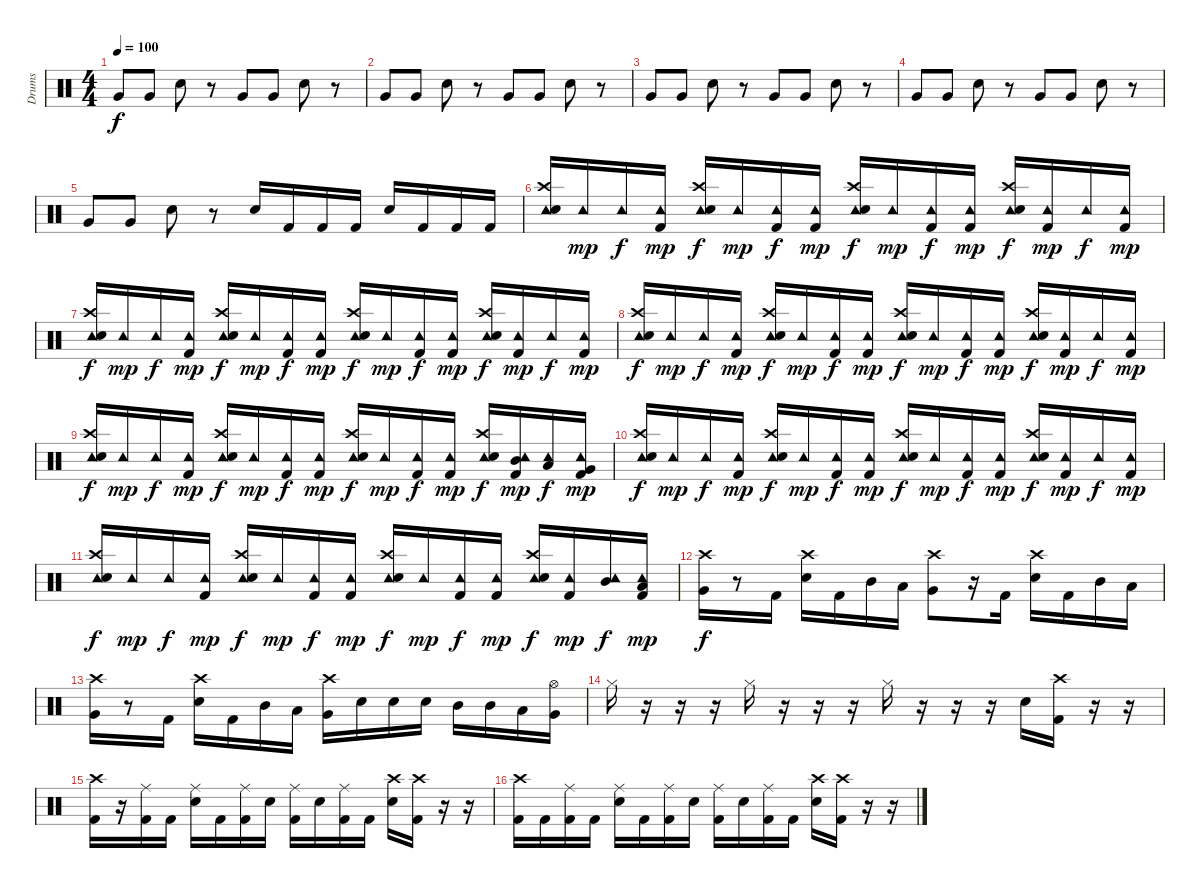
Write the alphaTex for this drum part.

\track ("Drums" "Drums") {instrument percussion}
\staff {score}
\articulation defaults
\ts (4 4)
\tempo 100
\clef neutral
\ks c "Very Low Tom (hit)".8{dy f} "Very Low Tom (hit)".8 "Electric Snare (hit)".8
r.8 "Very Low Tom (hit)".8 "Very Low Tom (hit)".8 "Electric Snare (hit)".8 r.8 |
"Very Low Tom (hit)".8 "Very Low Tom (hit)".8 "Electric Snare (hit)".8 r.8 "Very Low Tom (hit)".8 "Very Low Tom (hit)".8 "Electric Snare (hit)".8 r.8 |
"Very Low Tom (hit)".8 "Very Low Tom (hit)".8 "Electric Snare (hit)".8 r.8 "Very Low Tom (hit)".8 "Very Low Tom (hit)".8 "Electric Snare (hit)".8 r.8 |
"Very Low Tom (hit)".8 "Very Low Tom (hit)".8 "Electric Snare (hit)".8 r.8 "Very Low Tom (hit)".8 "Very Low Tom (hit)".8 "Electric Snare (hit)".8 r.8 |
"Very Low Tom (hit)".8 "Very Low Tom (hit)".8 "Electric Snare (hit)".8 r.8 "Electric Snare (hit)".16 "Kick (hit) 2".16 "Kick (hit) 2".16 "Kick (hit) 2".16 "Electric Snare (hit)".16 "Kick (hit) 2".16 "Kick (hit) 2".16 "Kick (hit) 2".16 |
("Crash high (hit)" "Tambourine (hit)" "Electric Snare (hit)").16 "Tambourine (hit)".16{dy mp} "Tambourine (hit)".16{dy f} ("Tambourine (hit)" "Kick (hit) 2").16{dy mp} ("Crash high (hit)" "Tambourine (hit)" "Electric Snare (hit)").16{dy f} "Tambourine (hit)".16{dy mp} ("Tambourine (hit)" "Kick (hit) 2").16{dy f} ("Tambourine (hit)" "Kick (hit) 2").16{dy mp} ("Crash high (hit)" "Tambourine (hit)" "Electric Snare (hit)").16{dy f} "Tambourine (hit)".16{dy mp} ("Tambourine (hit)" "Kick (hit) 2").16{dy f} ("Tambourine (hit)" "Kick (hit) 2").16{dy mp} ("Crash high (hit)" "Tambourine (hit)" "Electric Snare (hit)").16{dy f} ("Tambourine (hit)" "Kick (hit) 2").16{dy mp} "Tambourine (hit)".16{dy f} ("Tambourine (hit)" "Kick (hit) 2").16{dy mp} |
("Crash high (hit)" "Tambourine (hit)" "Electric Snare (hit)").16{dy f} "Tambourine (hit)".16{dy mp} "Tambourine (hit)".16{dy f} ("Tambourine (hit)" "Kick (hit) 2").16{dy mp} ("Crash high (hit)" "Tambourine (hit)" "Electric Snare (hit)").16{dy f} "Tambourine (hit)".16{dy mp} ("Tambourine (hit)" "Kick (hit) 2").16{dy f} ("Tambourine (hit)" "Kick (hit) 2").16{dy mp} ("Crash high (hit)" "Tambourine (hit)" "Electric Snare (hit)").16{dy f} "Tambourine (hit)".16{dy mp} ("Tambourine (hit)" "Kick (hit) 2").16{dy f} ("Tambourine (hit)" "Kick (hit) 2").16{dy mp} ("Crash high (hit)" "Tambourine (hit)" "Electric Snare (hit)").16{dy f} ("Tambourine (hit)" "Kick (hit) 2").16{dy mp} "Tambourine (hit)".16{dy f} ("Tambourine (hit)" "Kick (hit) 2").16{dy mp} |
("Crash high (hit)" "Tambourine (hit)" "Electric Snare (hit)").16{dy f} "Tambourine (hit)".16{dy mp} "Tambourine (hit)".16{dy f} ("Tambourine (hit)" "Kick (hit) 2").16{dy mp} ("Crash high (hit)" "Tambourine (hit)" "Electric Snare (hit)").16{dy f} "Tambourine (hit)".16{dy mp} ("Tambourine (hit)" "Kick (hit) 2").16{dy f} ("Tambourine (hit)" "Kick (hit) 2").16{dy mp} ("Crash high (hit)" "Tambourine (hit)" "Electric Snare (hit)").16{dy f} "Tambourine (hit)".16{dy mp} ("Tambourine (hit)" "Kick (hit) 2").16{dy f} ("Tambourine (hit)" "Kick (hit) 2").16{dy mp} ("Crash high (hit)" "Tambourine (hit)" "Electric Snare (hit)").16{dy f} ("Tambourine (hit)" "Kick (hit) 2").16{dy mp} "Tambourine (hit)".16{dy f} ("Tambourine (hit)" "Kick (hit) 2").16{dy mp} |
("Crash high (hit)" "Tambourine (hit)" "Electric Snare (hit)").16{dy f} "Tambourine (hit)".16{dy mp} "Tambourine (hit)".16{dy f} ("Tambourine (hit)" "Kick (hit) 2").16{dy mp} ("Crash high (hit)" "Tambourine (hit)" "Electric Snare (hit)").16{dy f} "Tambourine (hit)".16{dy mp} ("Tambourine (hit)" "Kick (hit) 2").16{dy f} ("Tambourine (hit)" "Kick (hit) 2").16{dy mp} ("Crash high (hit)" "Tambourine (hit)" "Electric Snare (hit)").16{dy f} "Tambourine (hit)".16{dy mp} ("Tambourine (hit)" "Kick (hit) 2").16{dy f} ("Tambourine (hit)" "Kick (hit) 2").16{dy mp} ("Crash high (hit)" "Tambourine (hit)" "Electric Snare (hit)").16{dy f} ("Tambourine (hit)" "Mid Tom (hit)" "Kick (hit) 2").16{dy mp} ("Tambourine (hit)" "Low Tom (hit)").16{dy f} ("Tambourine (hit)" "Very Low Tom (hit)" "Kick (hit) 2").16{dy mp} |
("Crash high (hit)" "Tambourine (hit)" "Electric Snare (hit)").16{dy f} "Tambourine (hit)".16{dy mp} "Tambourine (hit)".16{dy f} ("Tambourine (hit)" "Kick (hit) 2").16{dy mp} ("Crash high (hit)" "Tambourine (hit)" "Electric Snare (hit)").16{dy f} "Tambourine (hit)".16{dy mp} ("Tambourine (hit)" "Kick (hit) 2").16{dy f} ("Tambourine (hit)" "Kick (hit) 2").16{dy mp} ("Crash high (hit)" "Tambourine (hit)" "Electric Snare (hit)").16{dy f} "Tambourine (hit)".16{dy mp} ("Tambourine (hit)" "Kick (hit) 2").16{dy f} ("Tambourine (hit)" "Kick (hit) 2").16{dy mp} ("Crash high (hit)" "Tambourine (hit)" "Electric Snare (hit)").16{dy f} ("Tambourine (hit)" "Kick (hit) 2").16{dy mp} "Tambourine (hit)".16{dy f} ("Tambourine (hit)" "Kick (hit) 2").16{dy mp} |
("Crash high (hit)" "Tambourine (hit)" "Electric Snare (hit)").16{dy f} "Tambourine (hit)".16{dy mp} "Tambourine (hit)".16{dy f} ("Tambourine (hit)" "Kick (hit) 2").16{dy mp} ("Crash high (hit)" "Tambourine (hit)" "Electric Snare (hit)").16{dy f} "Tambourine (hit)".16{dy mp} ("Tambourine (hit)" "Kick (hit) 2").16{dy f} ("Tambourine (hit)" "Kick (hit) 2").16{dy mp} ("Crash high (hit)" "Tambourine (hit)" "Electric Snare (hit)").16{dy f} "Tambourine (hit)".16{dy mp} ("Tambourine (hit)" "Kick (hit) 2").16{dy f} ("Tambourine (hit)" "Kick (hit) 2").16{dy mp} ("Crash high (hit)" "Tambourine (hit)" "Electric Snare (hit)").16{dy f} ("Tambourine (hit)" "Kick (hit) 2").16{dy mp} ("Tambourine (hit)" "Mid Tom (hit)").16{dy f} ("Tambourine (hit)" "Low Tom (hit)" "Kick (hit) 2").16{dy mp} |
("Crash high (hit)" "Very Low Tom (hit)").16{dy f} r.8 "Kick (hit) 2".16 ("Crash high (hit)" "Electric Snare (hit)").16 "Kick (hit) 2".16 "Mid Tom (hit)".16 "Low Tom (hit)".16 ("Crash high (hit)" "Very Low Tom (hit)").8 r.16 "Kick (hit) 2".16 ("Crash high (hit)" "Electric Snare (hit)").16 "Kick (hit) 2".16 "Mid Tom (hit)".16 "Low Tom (hit)".16 |
("Crash high (hit)" "Very Low Tom (hit)").16 r.8 "Kick (hit) 2".16 ("Crash high (hit)" "Electric Snare (hit)").16 "Kick (hit) 2".16 "Mid Tom (hit)".16 "Low Tom (hit)".16 ("Crash high (hit)" "Very Low Tom (hit)").16 "Electric Snare (hit)".16 "Electric Snare (hit)".16 "Electric Snare (hit)".16 "Mid Tom (hit)".16 "Mid Tom (hit)".16 "Low Tom (hit)".16 ("Hi-Hat (open)" "Very Low Tom (hit)").16 |
"Hi-Hat (closed)".16 r.16 r.16 r.16 "Hi-Hat (closed)".16 r.16 r.16 r.16 "Hi-Hat (closed)".16 r.16 r.16 r.16 "Electric Snare (hit)".16 ("Crash high (hit)" "Kick (hit) 2").16 r.16 r.16 |
("Crash high (hit)" "Kick (hit) 2").16 r.16 ("Ride (middle)" "Kick (hit) 2").16 "Kick (hit) 2".16 ("Ride (middle)" "Electric Snare (hit)").16 "Kick (hit) 2".16 ("Ride (middle)" "Kick (hit) 2").16 "Electric Snare (hit)".16 ("Ride (middle)" "Kick (hit) 2").16 "Electric Snare (hit)".16 ("Ride (middle)" "Kick (hit) 2").16 "Kick (hit) 2".16 ("Crash high (hit)" "Electric Snare (hit)").16 ("Crash high (hit)" "Kick (hit) 2").16 r.16 r.16 |
("Crash high (hit)" "Kick (hit) 2").16 "Kick (hit) 2".16 ("Ride (middle)" "Kick (hit) 2").16 "Kick (hit) 2".16 ("Ride (middle)" "Electric Snare (hit)").16 "Kick (hit) 2".16 ("Ride (middle)" "Kick (hit) 2").16 "Electric Snare (hit)".16 ("Ride (middle)" "Kick (hit) 2").16 "Electric Snare (hit)".16 ("Ride (middle)" "Kick (hit) 2").16 "Kick (hit) 2".16 ("Crash high (hit)" "Electric Snare (hit)").16 ("Crash high (hit)" "Kick (hit) 2").16 r.16 r.16
